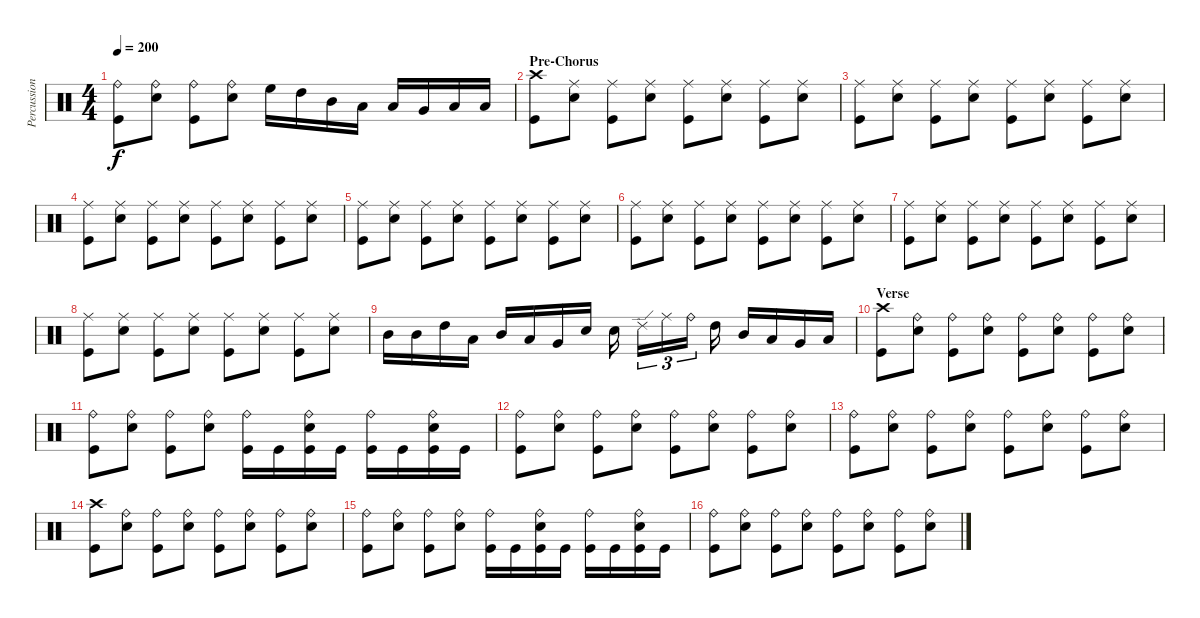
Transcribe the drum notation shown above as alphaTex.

\track ("Percussion" "Percussion") {instrument percussion}
\staff {score}
\articulation defaults
\ts (4 4)
\tempo 200
\clef neutral
\ks c
("Ride (bell)" "Kick (hit)").8{dy f} ("Ride (bell)" "Electric Snare (hit)").8 ("Ride (bell)" "Kick (hit)").8 ("Ride (bell)" "Electric Snare (hit)").8 "High Floor Tom (hit)".16 "High Tom (hit)".16 "Mid Tom (hit)".16 "Low Tom (hit)".16 "Low Tom (hit)".16 "Very Low Tom (hit)".16 "Low Floor Tom (hit)".16 "Low Tom (hit)".16 |
\section ("" "Pre-Chorus")
("Crash high (hit)" "Kick (hit)").8 ("Ride (middle)" "Electric Snare (hit)").8 ("Ride (middle)" "Kick (hit)").8 ("Ride (middle)" "Electric Snare (hit)").8 ("Ride (middle)" "Kick (hit)").8 ("Ride (middle)" "Electric Snare (hit)").8 ("Ride (middle)" "Kick (hit)").8 ("Ride (middle)" "Electric Snare (hit)").8 |
("Ride (middle)" "Kick (hit)").8 ("Ride (middle)" "Electric Snare (hit)").8 ("Ride (middle)" "Kick (hit)").8 ("Ride (middle)" "Electric Snare (hit)").8 ("Ride (middle)" "Kick (hit)").8 ("Ride (middle)" "Electric Snare (hit)").8 ("Ride (middle)" "Kick (hit)").8 ("Ride (middle)" "Electric Snare (hit)").8 |
("Ride (middle)" "Kick (hit)").8 ("Ride (middle)" "Electric Snare (hit)").8 ("Ride (middle)" "Kick (hit)").8 ("Ride (middle)" "Electric Snare (hit)").8 ("Ride (middle)" "Kick (hit)").8 ("Ride (middle)" "Electric Snare (hit)").8 ("Ride (middle)" "Kick (hit)").8 ("Ride (middle)" "Electric Snare (hit)").8 |
("Ride (middle)" "Kick (hit)").8 ("Ride (middle)" "Electric Snare (hit)").8 ("Ride (middle)" "Kick (hit)").8 ("Ride (middle)" "Electric Snare (hit)").8 ("Ride (middle)" "Kick (hit)").8 ("Ride (middle)" "Electric Snare (hit)").8 ("Ride (middle)" "Kick (hit)").8 ("Ride (middle)" "Electric Snare (hit)").8 |
("Ride (middle)" "Kick (hit)").8 ("Ride (middle)" "Electric Snare (hit)").8 ("Ride (middle)" "Kick (hit)").8 ("Ride (middle)" "Electric Snare (hit)").8 ("Ride (middle)" "Kick (hit)").8 ("Ride (middle)" "Electric Snare (hit)").8 ("Ride (middle)" "Kick (hit)").8 ("Ride (middle)" "Electric Snare (hit)").8 |
("Ride (middle)" "Kick (hit)").8 ("Ride (middle)" "Electric Snare (hit)").8 ("Ride (middle)" "Kick (hit)").8 ("Ride (middle)" "Electric Snare (hit)").8 ("Ride (middle)" "Kick (hit)").8 ("Ride (middle)" "Electric Snare (hit)").8 ("Ride (middle)" "Kick (hit)").8 ("Ride (middle)" "Electric Snare (hit)").8 |
("Ride (middle)" "Kick (hit)").8 ("Ride (middle)" "Electric Snare (hit)").8 ("Ride (middle)" "Kick (hit)").8 ("Ride (middle)" "Electric Snare (hit)").8 ("Ride (middle)" "Kick (hit)").8 ("Ride (middle)" "Electric Snare (hit)").8 ("Ride (middle)" "Kick (hit)").8 ("Ride (middle)" "Electric Snare (hit)").8 |
"Mid Tom (hit)".16 "Mid Tom (hit)".16 "High Tom (hit)".16 "Low Tom (hit)".16 "Mid Tom (hit)".16 "Low Tom (hit)".16 "Very Low Tom (hit)".16 "Electric Snare (hit)".16 "Electric Snare (hit)".16 "Ride (edge) 2".16{tu (3 2)} "Ride (middle)".16{tu (3 2)} "Ride (bell)".16{tu (3 2)} "High Tom (hit)".16 "Mid Tom (hit)".16 "Low Tom (hit)".16 "Very Low Tom (hit)".16 "Low Floor Tom (hit)".16 |
\section ("" "Verse")
("Crash high (hit)" "Kick (hit)").8 ("Ride (bell)" "Electric Snare (hit)").8 ("Ride (bell)" "Kick (hit)").8 ("Ride (bell)" "Electric Snare (hit)").8 ("Ride (bell)" "Kick (hit)").8 ("Ride (bell)" "Electric Snare (hit)").8 ("Ride (bell)" "Kick (hit)").8 ("Ride (bell)" "Electric Snare (hit)").8 |
("Ride (bell)" "Kick (hit)").8 ("Ride (bell)" "Electric Snare (hit)").8 ("Ride (bell)" "Kick (hit)").8 ("Ride (bell)" "Electric Snare (hit)").8 ("Ride (bell)" "Kick (hit)").16 "Kick (hit)".16 ("Ride (bell)" "Electric Snare (hit)" "Kick (hit)").16 "Kick (hit)".16 ("Ride (bell)" "Kick (hit)").16 "Kick (hit)".16 ("Ride (bell)" "Electric Snare (hit)" "Kick (hit)").16 "Kick (hit)".16 |
("Ride (bell)" "Kick (hit)").8 ("Ride (bell)" "Electric Snare (hit)").8 ("Ride (bell)" "Kick (hit)").8 ("Ride (bell)" "Electric Snare (hit)").8 ("Ride (bell)" "Kick (hit)").8 ("Ride (bell)" "Electric Snare (hit)").8 ("Ride (bell)" "Kick (hit)").8 ("Ride (bell)" "Electric Snare (hit)").8 |
("Ride (bell)" "Kick (hit)").8 ("Ride (bell)" "Electric Snare (hit)").8 ("Ride (bell)" "Kick (hit)").8 ("Ride (bell)" "Electric Snare (hit)").8 ("Ride (bell)" "Kick (hit)").8 ("Ride (bell)" "Electric Snare (hit)").8 ("Ride (bell)" "Kick (hit)").8 ("Ride (bell)" "Electric Snare (hit)").8 |
("Crash high (hit)" "Kick (hit)").8 ("Ride (bell)" "Electric Snare (hit)").8 ("Ride (bell)" "Kick (hit)").8 ("Ride (bell)" "Electric Snare (hit)").8 ("Ride (bell)" "Kick (hit)").8 ("Ride (bell)" "Electric Snare (hit)").8 ("Ride (bell)" "Kick (hit)").8 ("Ride (bell)" "Electric Snare (hit)").8 |
("Ride (bell)" "Kick (hit)").8 ("Ride (bell)" "Electric Snare (hit)").8 ("Ride (bell)" "Kick (hit)").8 ("Ride (bell)" "Electric Snare (hit)").8 ("Ride (bell)" "Kick (hit)").16 "Kick (hit)".16 ("Ride (bell)" "Electric Snare (hit)" "Kick (hit)").16 "Kick (hit)".16 ("Ride (bell)" "Kick (hit)").16 "Kick (hit)".16 ("Ride (bell)" "Electric Snare (hit)" "Kick (hit)").16 "Kick (hit)".16 |
("Ride (bell)" "Kick (hit)").8 ("Ride (bell)" "Electric Snare (hit)").8 ("Ride (bell)" "Kick (hit)").8 ("Ride (bell)" "Electric Snare (hit)").8 ("Ride (bell)" "Kick (hit)").8 ("Ride (bell)" "Electric Snare (hit)").8 ("Ride (bell)" "Kick (hit)").8 ("Ride (bell)" "Electric Snare (hit)").8
